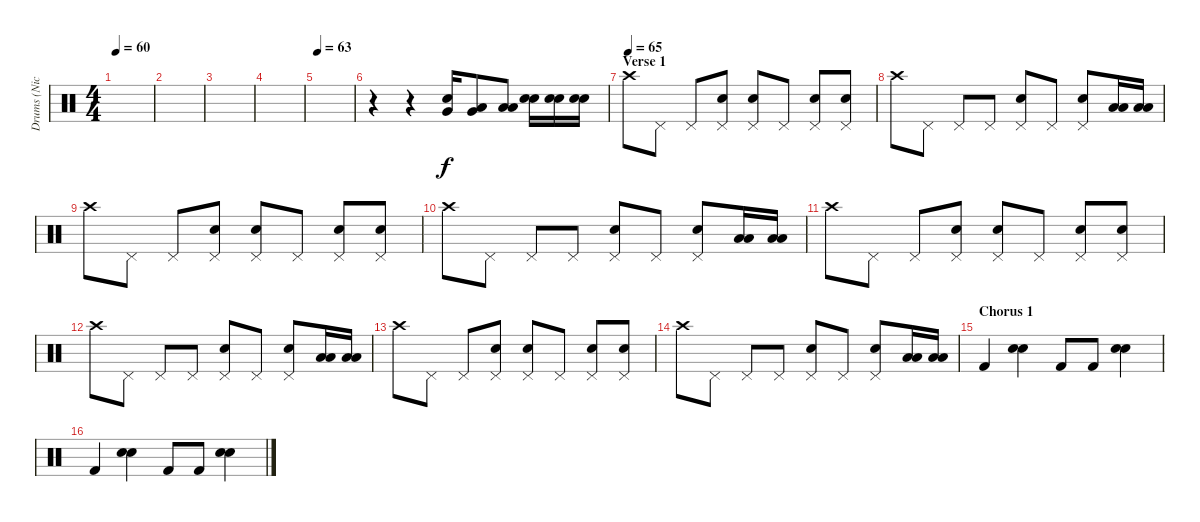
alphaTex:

\track ("Drums (Nick)" "Drums (Nic") {instrument percussion}
\staff {score}
\articulation defaults
\ts (4 4)
\tempo 60
\clef neutral
\ks c
|
|
|
|
\tempo 63
|
r.4 r.4 ("Electric Snare (hit)" "Very Low Tom (hit)").16 ("Low Tom (hit)" "Very Low Tom (hit)").8 ("Low Tom (hit)" "Low Tom (hit)").8 ("Electric Snare (hit)" "Snare (hit) 2").16 ("Electric Snare (hit)" "Snare (hit) 2").16 ("Electric Snare (hit)" "Snare (hit) 2").16 |
\section ("" "Verse 1")
\tempo (65)
"Crash high (hit)".8{dy f} "Pedal Hi-Hat (hit)".8 "Pedal Hi-Hat (hit)".8 ("Pedal Hi-Hat (hit)" "Electric Snare (hit)").8 ("Pedal Hi-Hat (hit)" "Electric Snare (hit)").8 "Pedal Hi-Hat (hit)".8 ("Pedal Hi-Hat (hit)" "Electric Snare (hit)").8 ("Pedal Hi-Hat (hit)" "Electric Snare (hit)").8 |
"Crash high (hit)".8 "Pedal Hi-Hat (hit)".8 "Pedal Hi-Hat (hit)".8 "Pedal Hi-Hat (hit)".8 ("Pedal Hi-Hat (hit)" "Electric Snare (hit)").8 "Pedal Hi-Hat (hit)".8 ("Pedal Hi-Hat (hit)" "Electric Snare (hit)").8 ("Low Tom (hit)" "Low Tom (hit)").16 ("Low Tom (hit)" "Low Tom (hit)").16 |
"Crash high (hit)".8 "Pedal Hi-Hat (hit)".8 "Pedal Hi-Hat (hit)".8 ("Pedal Hi-Hat (hit)" "Electric Snare (hit)").8 ("Pedal Hi-Hat (hit)" "Electric Snare (hit)").8 "Pedal Hi-Hat (hit)".8 ("Pedal Hi-Hat (hit)" "Electric Snare (hit)").8 ("Pedal Hi-Hat (hit)" "Electric Snare (hit)").8 |
"Crash high (hit)".8 "Pedal Hi-Hat (hit)".8 "Pedal Hi-Hat (hit)".8 "Pedal Hi-Hat (hit)".8 ("Pedal Hi-Hat (hit)" "Electric Snare (hit)").8 "Pedal Hi-Hat (hit)".8 ("Pedal Hi-Hat (hit)" "Electric Snare (hit)").8 ("Low Tom (hit)" "Low Tom (hit)").16 ("Low Tom (hit)" "Low Tom (hit)").16 |
"Crash high (hit)".8 "Pedal Hi-Hat (hit)".8 "Pedal Hi-Hat (hit)".8 ("Pedal Hi-Hat (hit)" "Electric Snare (hit)").8 ("Pedal Hi-Hat (hit)" "Electric Snare (hit)").8 "Pedal Hi-Hat (hit)".8 ("Pedal Hi-Hat (hit)" "Electric Snare (hit)").8 ("Pedal Hi-Hat (hit)" "Electric Snare (hit)").8 |
"Crash high (hit)".8 "Pedal Hi-Hat (hit)".8 "Pedal Hi-Hat (hit)".8 "Pedal Hi-Hat (hit)".8 ("Pedal Hi-Hat (hit)" "Electric Snare (hit)").8 "Pedal Hi-Hat (hit)".8 ("Pedal Hi-Hat (hit)" "Electric Snare (hit)").8 ("Low Tom (hit)" "Low Tom (hit)").16 ("Low Tom (hit)" "Low Tom (hit)").16 |
"Crash high (hit)".8 "Pedal Hi-Hat (hit)".8 "Pedal Hi-Hat (hit)".8 ("Pedal Hi-Hat (hit)" "Electric Snare (hit)").8 ("Pedal Hi-Hat (hit)" "Electric Snare (hit)").8 "Pedal Hi-Hat (hit)".8 ("Pedal Hi-Hat (hit)" "Electric Snare (hit)").8 ("Pedal Hi-Hat (hit)" "Electric Snare (hit)").8 |
"Crash high (hit)".8 "Pedal Hi-Hat (hit)".8 "Pedal Hi-Hat (hit)".8 "Pedal Hi-Hat (hit)".8 ("Pedal Hi-Hat (hit)" "Electric Snare (hit)").8 "Pedal Hi-Hat (hit)".8 ("Pedal Hi-Hat (hit)" "Electric Snare (hit)").8 ("Low Tom (hit)" "Low Tom (hit)").16 ("Low Tom (hit)" "Low Tom (hit)").16 |
\section ("" "Chorus 1")
"Kick (hit) 2".4 ("Snare (hit) 2" "Electric Snare (hit)").4 "Kick (hit) 2".8 "Kick (hit) 2".8 ("Snare (hit) 2" "Electric Snare (hit)").4 |
"Kick (hit) 2".4 ("Snare (hit) 2" "Electric Snare (hit)").4 "Kick (hit) 2".8 "Kick (hit) 2".8 ("Snare (hit) 2" "Electric Snare (hit)").4
